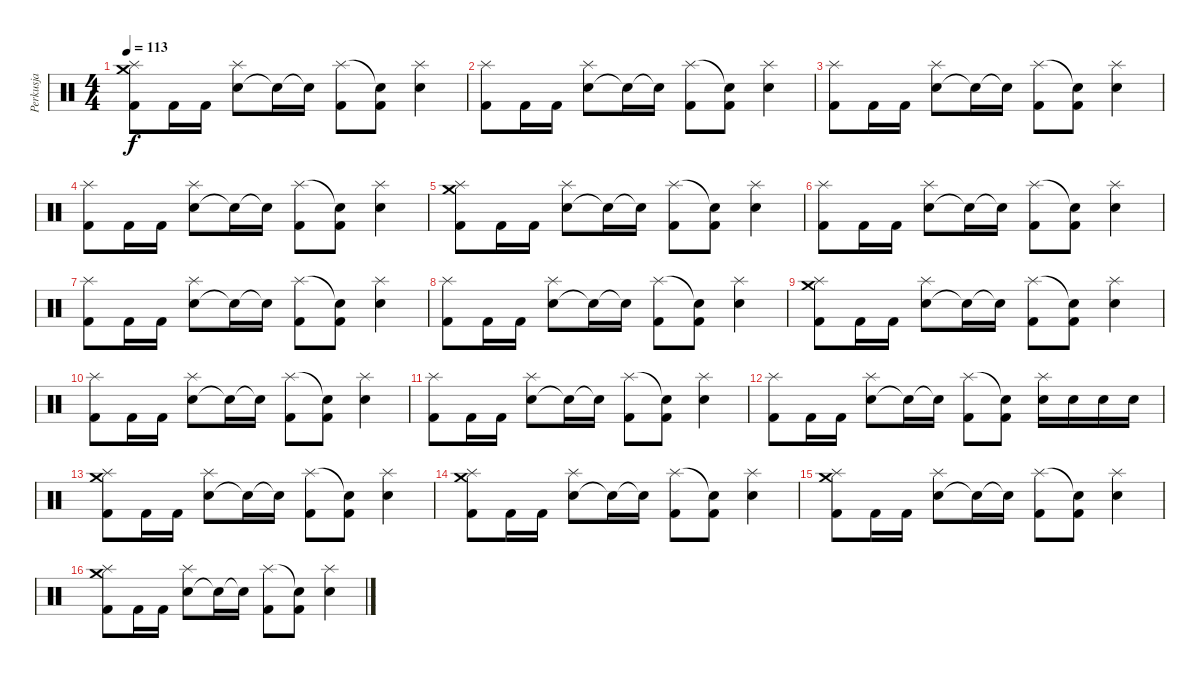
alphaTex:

\track ("Perkusja" "Perkusja") {instrument percussion}
\staff {score}
\articulation defaults
\ts (4 4)
\tempo 113
\clef neutral
\ks c
("Crash medium (hit)" "Kick (hit) 2" "Splash (hit)").8{dy f} "Kick (hit) 2".16 "Kick (hit) 2".16 ("Snare (hit) 2" "Splash (hit)").8 "Snare (hit)"{t}.16 "Snare (hit)"{t}.16 ("Kick (hit) 2" "Splash (hit)").8 ("Kick (hit) 2" "Snare (hit)"{t}).8 ("Snare (hit) 2" "Splash (hit)").4 |
("Kick (hit) 2" "Splash (hit)").8 "Kick (hit) 2".16 "Kick (hit) 2".16 ("Snare (hit) 2" "Splash (hit)").8 "Snare (hit)"{t}.16 "Snare (hit)"{t}.16 ("Kick (hit) 2" "Splash (hit)").8 ("Kick (hit) 2" "Snare (hit)"{t}).8 ("Snare (hit) 2" "Splash (hit)").4 |
("Kick (hit) 2" "Splash (hit)").8 "Kick (hit) 2".16 "Kick (hit) 2".16 ("Snare (hit) 2" "Splash (hit)").8 "Snare (hit)"{t}.16 "Snare (hit)"{t}.16 ("Kick (hit) 2" "Splash (hit)").8 ("Kick (hit) 2" "Snare (hit)"{t}).8 ("Snare (hit) 2" "Splash (hit)").4 |
("Kick (hit) 2" "Splash (hit)").8 "Kick (hit) 2".16 "Kick (hit) 2".16 ("Snare (hit) 2" "Splash (hit)").8 "Snare (hit)"{t}.16 "Snare (hit)"{t}.16 ("Kick (hit) 2" "Splash (hit)").8 ("Kick (hit) 2" "Snare (hit)"{t}).8 ("Snare (hit) 2" "Splash (hit)").4 |
("Crash medium (hit)" "Kick (hit) 2" "Splash (hit)").8 "Kick (hit) 2".16 "Kick (hit) 2".16 ("Snare (hit) 2" "Splash (hit)").8 "Snare (hit)"{t}.16 "Snare (hit)"{t}.16 ("Kick (hit) 2" "Splash (hit)").8 ("Kick (hit) 2" "Snare (hit)"{t}).8 ("Snare (hit) 2" "Splash (hit)").4 |
("Kick (hit) 2" "Splash (hit)").8 "Kick (hit) 2".16 "Kick (hit) 2".16 ("Snare (hit) 2" "Splash (hit)").8 "Snare (hit)"{t}.16 "Snare (hit)"{t}.16 ("Kick (hit) 2" "Splash (hit)").8 ("Kick (hit) 2" "Snare (hit)"{t}).8 ("Snare (hit) 2" "Splash (hit)").4 |
("Kick (hit) 2" "Splash (hit)").8 "Kick (hit) 2".16 "Kick (hit) 2".16 ("Snare (hit) 2" "Splash (hit)").8 "Snare (hit)"{t}.16 "Snare (hit)"{t}.16 ("Kick (hit) 2" "Splash (hit)").8 ("Kick (hit) 2" "Snare (hit)"{t}).8 ("Snare (hit) 2" "Splash (hit)").4 |
("Kick (hit) 2" "Splash (hit)").8 "Kick (hit) 2".16 "Kick (hit) 2".16 ("Snare (hit) 2" "Splash (hit)").8 "Snare (hit)"{t}.16 "Snare (hit)"{t}.16 ("Kick (hit) 2" "Splash (hit)").8 ("Kick (hit) 2" "Snare (hit)"{t}).8 ("Snare (hit) 2" "Splash (hit)").4 |
("Crash medium (hit)" "Kick (hit) 2" "Splash (hit)").8 "Kick (hit) 2".16 "Kick (hit) 2".16 ("Snare (hit) 2" "Splash (hit)").8 "Snare (hit)"{t}.16 "Snare (hit)"{t}.16 ("Kick (hit) 2" "Splash (hit)").8 ("Kick (hit) 2" "Snare (hit)"{t}).8 ("Snare (hit) 2" "Splash (hit)").4 |
("Kick (hit) 2" "Splash (hit)").8 "Kick (hit) 2".16 "Kick (hit) 2".16 ("Snare (hit) 2" "Splash (hit)").8 "Snare (hit)"{t}.16 "Snare (hit)"{t}.16 ("Kick (hit) 2" "Splash (hit)").8 ("Kick (hit) 2" "Snare (hit)"{t}).8 ("Snare (hit) 2" "Splash (hit)").4 |
("Kick (hit) 2" "Splash (hit)").8 "Kick (hit) 2".16 "Kick (hit) 2".16 ("Snare (hit) 2" "Splash (hit)").8 "Snare (hit)"{t}.16 "Snare (hit)"{t}.16 ("Kick (hit) 2" "Splash (hit)").8 ("Kick (hit) 2" "Snare (hit)"{t}).8 ("Snare (hit) 2" "Splash (hit)").4 |
("Kick (hit) 2" "Splash (hit)").8 "Kick (hit) 2".16 "Kick (hit) 2".16 ("Snare (hit) 2" "Splash (hit)").8 "Snare (hit)"{t}.16 "Snare (hit)"{t}.16 ("Kick (hit) 2" "Splash (hit)").8 ("Kick (hit) 2" "Snare (hit)"{t}).8 ("Snare (hit) 2" "Splash (hit)").16 "Snare (hit) 2".16 "Snare (hit) 2".16 "Snare (hit) 2".16 |
("Crash medium (hit)" "Kick (hit) 2" "Splash (hit)").8 "Kick (hit) 2".16 "Kick (hit) 2".16 ("Snare (hit) 2" "Splash (hit)").8 "Snare (hit)"{t}.16 "Snare (hit)"{t}.16 ("Kick (hit) 2" "Splash (hit)").8 ("Kick (hit) 2" "Snare (hit)"{t}).8 ("Snare (hit) 2" "Splash (hit)").4 |
("Crash medium (hit)" "Kick (hit) 2" "Splash (hit)").8 "Kick (hit) 2".16 "Kick (hit) 2".16 ("Snare (hit) 2" "Splash (hit)").8 "Snare (hit)"{t}.16 "Snare (hit)"{t}.16 ("Kick (hit) 2" "Splash (hit)").8 ("Kick (hit) 2" "Snare (hit)"{t}).8 ("Snare (hit) 2" "Splash (hit)").4 |
("Crash medium (hit)" "Kick (hit) 2" "Splash (hit)").8 "Kick (hit) 2".16 "Kick (hit) 2".16 ("Snare (hit) 2" "Splash (hit)").8 "Snare (hit)"{t}.16 "Snare (hit)"{t}.16 ("Kick (hit) 2" "Splash (hit)").8 ("Kick (hit) 2" "Snare (hit)"{t}).8 ("Snare (hit) 2" "Splash (hit)").4 |
("Crash medium (hit)" "Kick (hit) 2" "Splash (hit)").8 "Kick (hit) 2".16 "Kick (hit) 2".16 ("Snare (hit) 2" "Splash (hit)").8 "Snare (hit)"{t}.16 "Snare (hit)"{t}.16 ("Kick (hit) 2" "Splash (hit)").8 ("Kick (hit) 2" "Snare (hit)"{t}).8 ("Snare (hit) 2" "Splash (hit)").4
